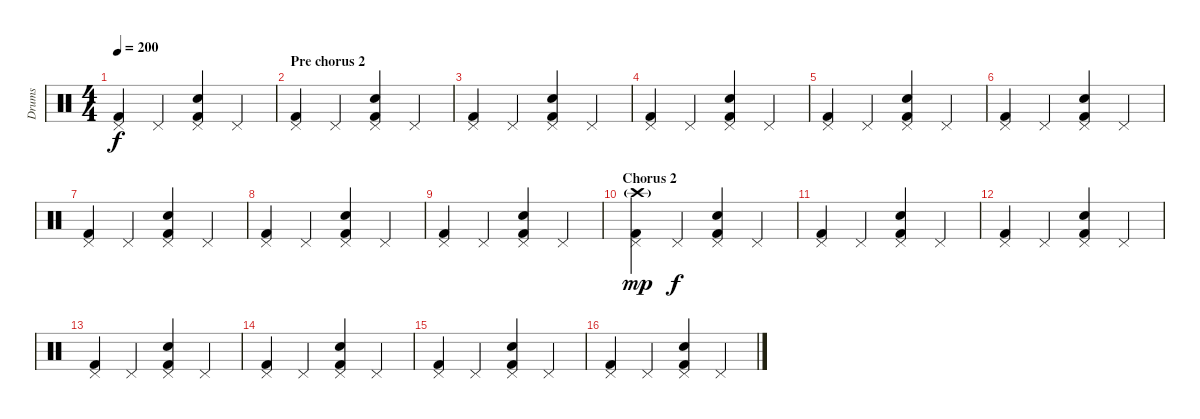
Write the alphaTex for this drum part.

\track ("Drums" "Drums") {instrument percussion}
\staff {score}
\articulation defaults
\ts (4 4)
\tempo 200
\clef neutral
\ks c
("Pedal Hi-Hat (hit)" "Kick (hit) 2").4{dy f} "Pedal Hi-Hat (hit)".4 ("Pedal Hi-Hat (hit)" "Kick (hit) 2" "Snare (hit) 2").4 "Pedal Hi-Hat (hit)".4 |
\section ("" "Pre chorus 2")
("Pedal Hi-Hat (hit)" "Kick (hit) 2").4 "Pedal Hi-Hat (hit)".4 ("Pedal Hi-Hat (hit)" "Kick (hit) 2" "Snare (hit) 2").4 "Pedal Hi-Hat (hit)".4 |
("Pedal Hi-Hat (hit)" "Kick (hit) 2").4 "Pedal Hi-Hat (hit)".4 ("Pedal Hi-Hat (hit)" "Kick (hit) 2" "Snare (hit) 2").4 "Pedal Hi-Hat (hit)".4 |
("Pedal Hi-Hat (hit)" "Kick (hit) 2").4 "Pedal Hi-Hat (hit)".4 ("Pedal Hi-Hat (hit)" "Kick (hit) 2" "Snare (hit) 2").4 "Pedal Hi-Hat (hit)".4 |
("Pedal Hi-Hat (hit)" "Kick (hit) 2").4 "Pedal Hi-Hat (hit)".4 ("Pedal Hi-Hat (hit)" "Kick (hit) 2" "Snare (hit) 2").4 "Pedal Hi-Hat (hit)".4 |
("Pedal Hi-Hat (hit)" "Kick (hit) 2").4 "Pedal Hi-Hat (hit)".4 ("Pedal Hi-Hat (hit)" "Kick (hit) 2" "Snare (hit) 2").4 "Pedal Hi-Hat (hit)".4 |
("Pedal Hi-Hat (hit)" "Kick (hit) 2").4 "Pedal Hi-Hat (hit)".4 ("Pedal Hi-Hat (hit)" "Kick (hit) 2" "Snare (hit) 2").4 "Pedal Hi-Hat (hit)".4 |
("Pedal Hi-Hat (hit)" "Kick (hit) 2").4 "Pedal Hi-Hat (hit)".4 ("Pedal Hi-Hat (hit)" "Kick (hit) 2" "Snare (hit) 2").4 "Pedal Hi-Hat (hit)".4 |
("Pedal Hi-Hat (hit)" "Kick (hit) 2").4 "Pedal Hi-Hat (hit)".4 ("Pedal Hi-Hat (hit)" "Kick (hit) 2" "Snare (hit) 2").4 "Pedal Hi-Hat (hit)".4 |
\section ("" "Chorus 2")
("Pedal Hi-Hat (hit)" "Crash high (hit)"{g} "Kick (hit) 2").4{dy mp} "Pedal Hi-Hat (hit)".4{dy f} ("Pedal Hi-Hat (hit)" "Kick (hit) 2" "Snare (hit) 2").4 "Pedal Hi-Hat (hit)".4 |
("Pedal Hi-Hat (hit)" "Kick (hit) 2").4 "Pedal Hi-Hat (hit)".4 ("Pedal Hi-Hat (hit)" "Kick (hit) 2" "Snare (hit) 2").4 "Pedal Hi-Hat (hit)".4 |
("Pedal Hi-Hat (hit)" "Kick (hit) 2").4 "Pedal Hi-Hat (hit)".4 ("Pedal Hi-Hat (hit)" "Kick (hit) 2" "Snare (hit) 2").4 "Pedal Hi-Hat (hit)".4 |
("Pedal Hi-Hat (hit)" "Kick (hit) 2").4 "Pedal Hi-Hat (hit)".4 ("Pedal Hi-Hat (hit)" "Kick (hit) 2" "Snare (hit) 2").4 "Pedal Hi-Hat (hit)".4 |
("Pedal Hi-Hat (hit)" "Kick (hit) 2").4 "Pedal Hi-Hat (hit)".4 ("Pedal Hi-Hat (hit)" "Kick (hit) 2" "Snare (hit) 2").4 "Pedal Hi-Hat (hit)".4 |
("Pedal Hi-Hat (hit)" "Kick (hit) 2").4 "Pedal Hi-Hat (hit)".4 ("Pedal Hi-Hat (hit)" "Kick (hit) 2" "Snare (hit) 2").4 "Pedal Hi-Hat (hit)".4 |
("Pedal Hi-Hat (hit)" "Kick (hit) 2").4 "Pedal Hi-Hat (hit)".4 ("Pedal Hi-Hat (hit)" "Kick (hit) 2" "Snare (hit) 2").4 "Pedal Hi-Hat (hit)".4
